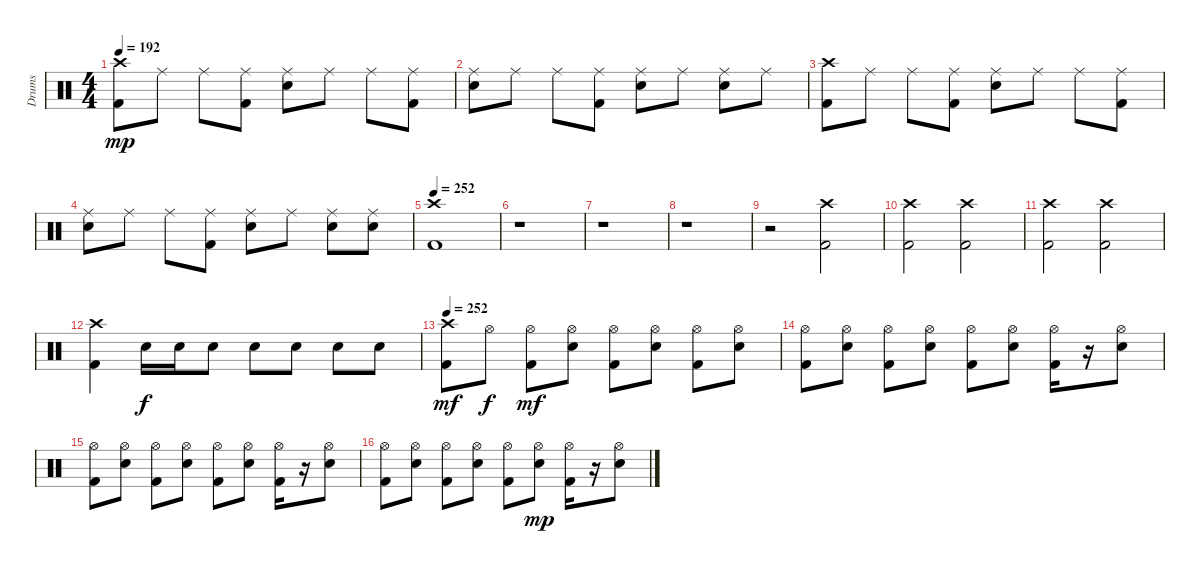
\track ("Drums" "Drums") {instrument percussion}
\staff {score}
\articulation defaults
\ts (4 4)
\tempo 192
\clef neutral
\ks c
("Crash high (hit)" "Kick (hit) 2").8{dy mp} "Ride (middle)".8 "Ride (middle)".8 ("Ride (middle)" "Kick (hit) 2").8 ("Ride (middle)" "Snare (hit) 2").8 "Ride (middle)".8 "Ride (middle)".8 ("Ride (middle)" "Kick (hit) 2").8 |
("Ride (middle)" "Snare (hit) 2").8 "Ride (middle)".8 "Ride (middle)".8 ("Ride (middle)" "Kick (hit) 2").8 ("Ride (middle)" "Snare (hit) 2").8 "Ride (middle)".8 ("Ride (middle)" "Snare (hit) 2").8 "Ride (middle)".8 |
("Crash high (hit)" "Kick (hit) 2").8 "Ride (middle)".8 "Ride (middle)".8 ("Ride (middle)" "Kick (hit) 2").8 ("Ride (middle)" "Snare (hit) 2").8 "Ride (middle)".8 "Ride (middle)".8 ("Ride (middle)" "Kick (hit) 2").8 |
("Ride (middle)" "Snare (hit) 2").8 "Ride (middle)".8 "Ride (middle)".8 ("Ride (middle)" "Kick (hit) 2").8 ("Ride (middle)" "Snare (hit) 2").8 "Ride (middle)".8 ("Ride (middle)" "Snare (hit) 2").8 ("Ride (middle)" "Snare (hit) 2").8 |
\tempo 252
("Crash high (hit)" "Kick (hit) 2").1 |
r.1 |
r.1 |
r.1 |
r.2 ("Crash high (hit)" "Kick (hit) 2").2 |
("Crash high (hit)" "Kick (hit) 2").2 ("Crash high (hit)" "Kick (hit) 2").2 |
("Crash high (hit)" "Kick (hit) 2").2 ("Crash high (hit)" "Kick (hit) 2").2 |
("Crash high (hit)" "Kick (hit) 2").4 "Snare (hit) 2".16{dy f} "Snare (hit) 2".16 "Snare (hit) 2".8 "Snare (hit) 2".8 "Snare (hit) 2".8 "Snare (hit) 2".8 "Snare (hit) 2".8 |
\tempo 252
("Crash high (hit)" "Kick (hit) 2").8{dy mf} "Hi-Hat (open)".8{dy f} ("Hi-Hat (open)" "Kick (hit) 2").8{dy mf} ("Hi-Hat (open)" "Snare (hit) 2").8 ("Hi-Hat (open)" "Kick (hit) 2").8 ("Hi-Hat (open)" "Snare (hit) 2").8 ("Hi-Hat (open)" "Kick (hit) 2").8 ("Hi-Hat (open)" "Snare (hit) 2").8 |
("Hi-Hat (open)" "Kick (hit) 2").8 ("Hi-Hat (open)" "Snare (hit) 2").8 ("Hi-Hat (open)" "Kick (hit) 2").8 ("Hi-Hat (open)" "Snare (hit) 2").8 ("Hi-Hat (open)" "Kick (hit) 2").8 ("Hi-Hat (open)" "Snare (hit) 2").8 ("Hi-Hat (open)" "Kick (hit) 2").16 r.16 ("Hi-Hat (open)" "Snare (hit) 2").8 |
("Hi-Hat (open)" "Kick (hit) 2").8 ("Hi-Hat (open)" "Snare (hit) 2").8 ("Hi-Hat (open)" "Kick (hit) 2").8 ("Hi-Hat (open)" "Snare (hit) 2").8 ("Hi-Hat (open)" "Kick (hit) 2").8 ("Hi-Hat (open)" "Snare (hit) 2").8 ("Hi-Hat (open)" "Kick (hit) 2").16 r.16 ("Hi-Hat (open)" "Snare (hit) 2").8 |
("Hi-Hat (open)" "Kick (hit) 2").8 ("Hi-Hat (open)" "Snare (hit) 2").8 ("Hi-Hat (open)" "Kick (hit) 2").8 ("Hi-Hat (open)" "Snare (hit) 2").8 ("Hi-Hat (open)" "Kick (hit) 2").8 ("Hi-Hat (open)" "Snare (hit) 2").8{dy mp} ("Hi-Hat (open)" "Kick (hit) 2").16 r.16 ("Hi-Hat (open)" "Snare (hit) 2").8
